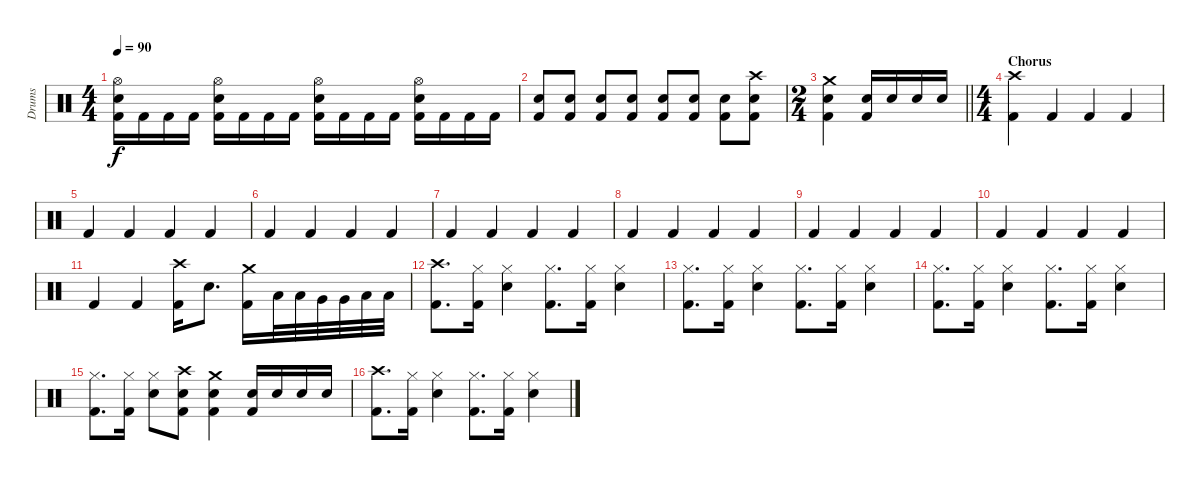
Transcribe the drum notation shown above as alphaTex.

\track ("Drums" "Drums") {instrument percussion}
\staff {score}
\articulation defaults
\ts (4 4)
\tempo 90
\clef neutral
\ks c
("Hi-Hat (open)" "Snare (hit) 2" "Kick (hit) 2").16{dy f} "Kick (hit) 2".16 "Kick (hit) 2".16 "Kick (hit) 2".16 ("Hi-Hat (open)" "Snare (hit) 2" "Kick (hit) 2").16 "Kick (hit) 2".16 "Kick (hit) 2".16 "Kick (hit) 2".16 ("Hi-Hat (open)" "Snare (hit) 2" "Kick (hit) 2").16 "Kick (hit) 2".16 "Kick (hit) 2".16 "Kick (hit) 2".16 ("Hi-Hat (open)" "Snare (hit) 2" "Kick (hit) 2").16 "Kick (hit) 2".16 "Kick (hit) 2".16 "Kick (hit) 2".16 |
("Snare (hit) 2" "Kick (hit) 2").8 ("Snare (hit) 2" "Kick (hit) 2").8 ("Snare (hit) 2" "Kick (hit) 2").8 ("Snare (hit) 2" "Kick (hit) 2").8 ("Snare (hit) 2" "Kick (hit) 2").8 ("Snare (hit) 2" "Kick (hit) 2").8 ("Snare (hit) 2" "Kick (hit) 2").8 ("Crash high (hit)" "Snare (hit) 2" "Kick (hit) 2").8 |
\ts (2 4)
\barLineRight lightlight
("Crash medium (hit)" "Snare (hit) 2" "Kick (hit) 2").4 ("Snare (hit) 2" "Kick (hit) 2").16 "Snare (hit) 2".16 "Snare (hit) 2".16 "Snare (hit) 2".16 |
\ts (4 4)
\section ("" "Chorus")
("Crash high (hit)" "Kick (hit) 2").4 "Kick (hit) 2".4 "Kick (hit) 2".4 "Kick (hit) 2".4 |
"Kick (hit) 2".4 "Kick (hit) 2".4 "Kick (hit) 2".4 "Kick (hit) 2".4 |
"Kick (hit) 2".4 "Kick (hit) 2".4 "Kick (hit) 2".4 "Kick (hit) 2".4 |
"Kick (hit) 2".4 "Kick (hit) 2".4 "Kick (hit) 2".4 "Kick (hit) 2".4 |
"Kick (hit) 2".4 "Kick (hit) 2".4 "Kick (hit) 2".4 "Kick (hit) 2".4 |
"Kick (hit) 2".4 "Kick (hit) 2".4 "Kick (hit) 2".4 "Kick (hit) 2".4 |
"Kick (hit) 2".4 "Kick (hit) 2".4 "Kick (hit) 2".4 "Kick (hit) 2".4 |
"Kick (hit) 2".4 "Kick (hit) 2".4 ("Crash high (hit)" "Kick (hit) 2").16 "Snare (hit) 2".8{d} ("Crash medium (hit)" "Kick (hit) 2").16 "Low Tom (hit)".32 "Low Tom (hit)".32 "Very Low Tom (hit)".32 "Very Low Tom (hit)".32 "Low Floor Tom (hit)".32 "Low Floor Tom (hit)".32 |
("Crash high (hit)" "Kick (hit) 2").8{d} ("Hi-Hat (closed)" "Kick (hit) 2").16 ("Hi-Hat (closed)" "Snare (hit) 2").4 ("Hi-Hat (closed)" "Kick (hit) 2").8{d} ("Hi-Hat (closed)" "Kick (hit) 2").16 ("Hi-Hat (closed)" "Snare (hit) 2").4 |
("Hi-Hat (closed)" "Kick (hit) 2").8{d} ("Hi-Hat (closed)" "Kick (hit) 2").16 ("Hi-Hat (closed)" "Snare (hit) 2").4 ("Hi-Hat (closed)" "Kick (hit) 2").8{d} ("Hi-Hat (closed)" "Kick (hit) 2").16 ("Hi-Hat (closed)" "Snare (hit) 2").4 |
("Hi-Hat (closed)" "Kick (hit) 2").8{d} ("Hi-Hat (closed)" "Kick (hit) 2").16 ("Hi-Hat (closed)" "Snare (hit) 2").4 ("Hi-Hat (closed)" "Kick (hit) 2").8{d} ("Hi-Hat (closed)" "Kick (hit) 2").16 ("Hi-Hat (closed)" "Snare (hit) 2").4 |
("Hi-Hat (closed)" "Kick (hit) 2").8{d} ("Hi-Hat (closed)" "Kick (hit) 2").16 ("Hi-Hat (closed)" "Snare (hit) 2").8 ("Crash high (hit)" "Snare (hit) 2" "Kick (hit) 2").8 ("Crash medium (hit)" "Snare (hit) 2" "Kick (hit) 2").4 ("Snare (hit) 2" "Kick (hit) 2").16 "Snare (hit) 2".16 "Snare (hit) 2".16 "Snare (hit) 2".16 |
("Crash high (hit)" "Kick (hit) 2").8{d} ("Hi-Hat (closed)" "Kick (hit) 2").16 ("Hi-Hat (closed)" "Snare (hit) 2").4 ("Hi-Hat (closed)" "Kick (hit) 2").8{d} ("Hi-Hat (closed)" "Kick (hit) 2").16 ("Hi-Hat (closed)" "Snare (hit) 2").4
